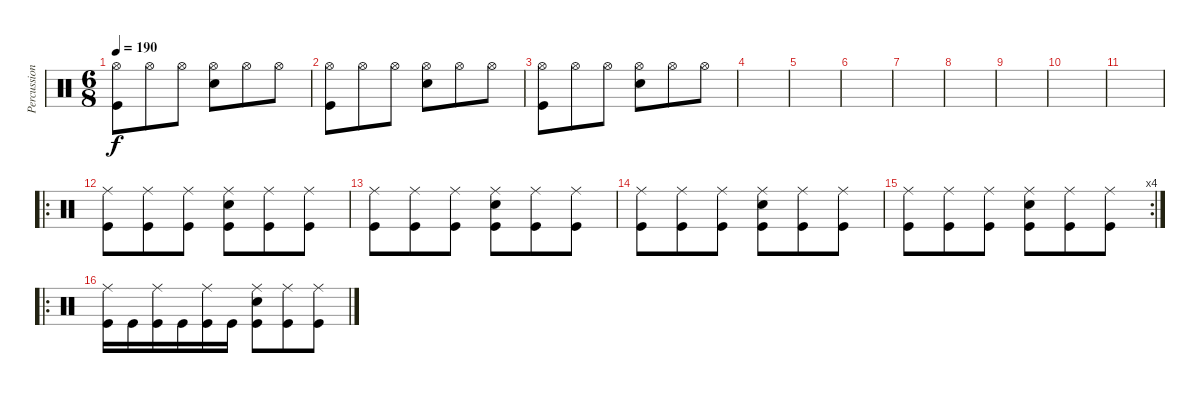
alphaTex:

\track ("Percussion" "Percussion") {instrument percussion}
\staff {score}
\articulation defaults
\ts (6 8)
\tempo 190
\clef neutral
\ks c
("Hi-Hat (open)" "Kick (hit)").8{dy f} "Hi-Hat (open)".8 "Hi-Hat (open)".8 ("Hi-Hat (open)" "Snare (hit) 2").8 "Hi-Hat (open)".8 "Hi-Hat (open)".8 |
("Hi-Hat (open)" "Kick (hit)").8 "Hi-Hat (open)".8 "Hi-Hat (open)".8 ("Hi-Hat (open)" "Snare (hit) 2").8 "Hi-Hat (open)".8 "Hi-Hat (open)".8 |
("Hi-Hat (open)" "Kick (hit)").8 "Hi-Hat (open)".8 "Hi-Hat (open)".8 ("Hi-Hat (open)" "Snare (hit) 2").8 "Hi-Hat (open)".8 "Hi-Hat (open)".8 |
|
|
|
|
|
|
|
|
\ro
("Ride (middle)" "Kick (hit)").8 ("Ride (middle)" "Kick (hit)").8 ("Ride (middle)" "Kick (hit)").8 ("Ride (middle)" "Snare (hit) 2" "Kick (hit)").8 ("Ride (middle)" "Kick (hit)").8 ("Ride (middle)" "Kick (hit)").8 |
("Ride (middle)" "Kick (hit)").8 ("Ride (middle)" "Kick (hit)").8 ("Ride (middle)" "Kick (hit)").8 ("Ride (middle)" "Snare (hit) 2" "Kick (hit)").8 ("Ride (middle)" "Kick (hit)").8 ("Ride (middle)" "Kick (hit)").8 |
("Ride (middle)" "Kick (hit)").8 ("Ride (middle)" "Kick (hit)").8 ("Ride (middle)" "Kick (hit)").8 ("Ride (middle)" "Snare (hit) 2" "Kick (hit)").8 ("Ride (middle)" "Kick (hit)").8 ("Ride (middle)" "Kick (hit)").8 |
\rc 4
("Ride (middle)" "Kick (hit)").8 ("Ride (middle)" "Kick (hit)").8 ("Ride (middle)" "Kick (hit)").8 ("Ride (middle)" "Snare (hit) 2" "Kick (hit)").8 ("Ride (middle)" "Kick (hit)").8 ("Ride (middle)" "Kick (hit)").8 |
\ro
("Ride (middle)" "Kick (hit)").16 "Kick (hit)".16 ("Ride (middle)" "Kick (hit)").16 "Kick (hit)".16 ("Ride (middle)" "Kick (hit)").16 "Kick (hit)".16 ("Ride (middle)" "Snare (hit) 2" "Kick (hit)").8 ("Ride (middle)" "Kick (hit)").8 ("Ride (middle)" "Kick (hit)").8
